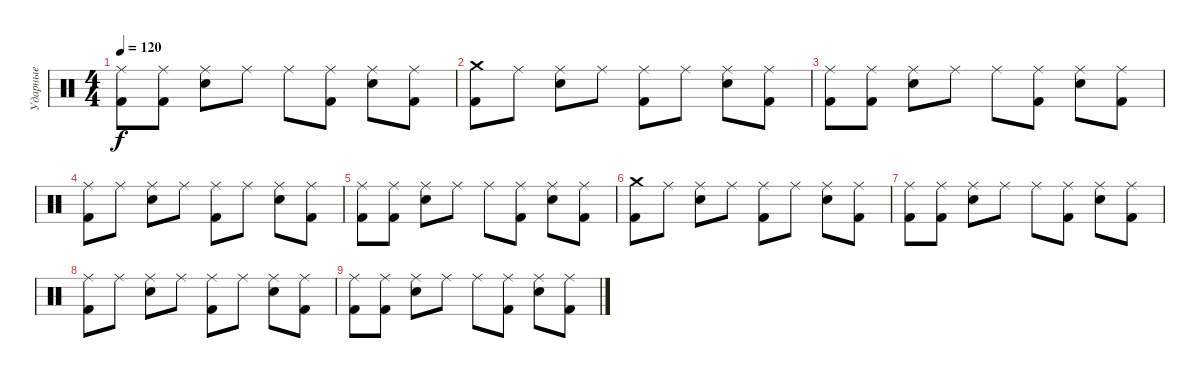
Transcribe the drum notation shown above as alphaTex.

\track ("Ударные" "Ударные") {instrument percussion}
\staff {score}
\articulation defaults
\ts (4 4)
\tempo 120
\clef neutral
\ks c
("Ride (middle)" "Kick (hit) 2").8{dy f} ("Ride (middle)" "Kick (hit) 2").8 ("Ride (middle)" "Electric Snare (hit)").8 "Ride (middle)".8 "Ride (middle)".8 ("Ride (middle)" "Kick (hit) 2").8 ("Ride (middle)" "Electric Snare (hit)").8 ("Ride (middle)" "Kick (hit) 2").8 |
("Crash medium (hit)" "Kick (hit) 2").8 "Ride (middle)".8 ("Ride (middle)" "Electric Snare (hit)").8 "Ride (middle)".8 ("Ride (middle)" "Kick (hit) 2").8 "Ride (middle)".8 ("Ride (middle)" "Electric Snare (hit)").8 ("Ride (middle)" "Kick (hit) 2").8 |
("Ride (middle)" "Kick (hit) 2").8 ("Ride (middle)" "Kick (hit) 2").8 ("Ride (middle)" "Electric Snare (hit)").8 "Ride (middle)".8 "Ride (middle)".8 ("Ride (middle)" "Kick (hit) 2").8 ("Ride (middle)" "Electric Snare (hit)").8 ("Ride (middle)" "Kick (hit) 2").8 |
("Ride (middle)" "Kick (hit) 2").8 "Ride (middle)".8 ("Ride (middle)" "Electric Snare (hit)").8 "Ride (middle)".8 ("Ride (middle)" "Kick (hit) 2").8 "Ride (middle)".8 ("Ride (middle)" "Electric Snare (hit)").8 ("Ride (middle)" "Kick (hit) 2").8 |
("Ride (middle)" "Kick (hit) 2").8 ("Ride (middle)" "Kick (hit) 2").8 ("Ride (middle)" "Electric Snare (hit)").8 "Ride (middle)".8 "Ride (middle)".8 ("Ride (middle)" "Kick (hit) 2").8 ("Ride (middle)" "Electric Snare (hit)").8 ("Ride (middle)" "Kick (hit) 2").8 |
("Crash medium (hit)" "Kick (hit) 2").8 "Ride (middle)".8 ("Ride (middle)" "Electric Snare (hit)").8 "Ride (middle)".8 ("Ride (middle)" "Kick (hit) 2").8 "Ride (middle)".8 ("Ride (middle)" "Electric Snare (hit)").8 ("Ride (middle)" "Kick (hit) 2").8 |
("Ride (middle)" "Kick (hit) 2").8 ("Ride (middle)" "Kick (hit) 2").8 ("Ride (middle)" "Electric Snare (hit)").8 "Ride (middle)".8 "Ride (middle)".8 ("Ride (middle)" "Kick (hit) 2").8 ("Ride (middle)" "Electric Snare (hit)").8 ("Ride (middle)" "Kick (hit) 2").8 |
("Ride (middle)" "Kick (hit) 2").8 "Ride (middle)".8 ("Ride (middle)" "Electric Snare (hit)").8 "Ride (middle)".8 ("Ride (middle)" "Kick (hit) 2").8 "Ride (middle)".8 ("Ride (middle)" "Electric Snare (hit)").8 ("Ride (middle)" "Kick (hit) 2").8 |
("Ride (middle)" "Kick (hit) 2").8 ("Ride (middle)" "Kick (hit) 2").8 ("Ride (middle)" "Electric Snare (hit)").8 "Ride (middle)".8 "Ride (middle)".8 ("Ride (middle)" "Kick (hit) 2").8 ("Ride (middle)" "Electric Snare (hit)").8 ("Ride (middle)" "Kick (hit) 2").8
